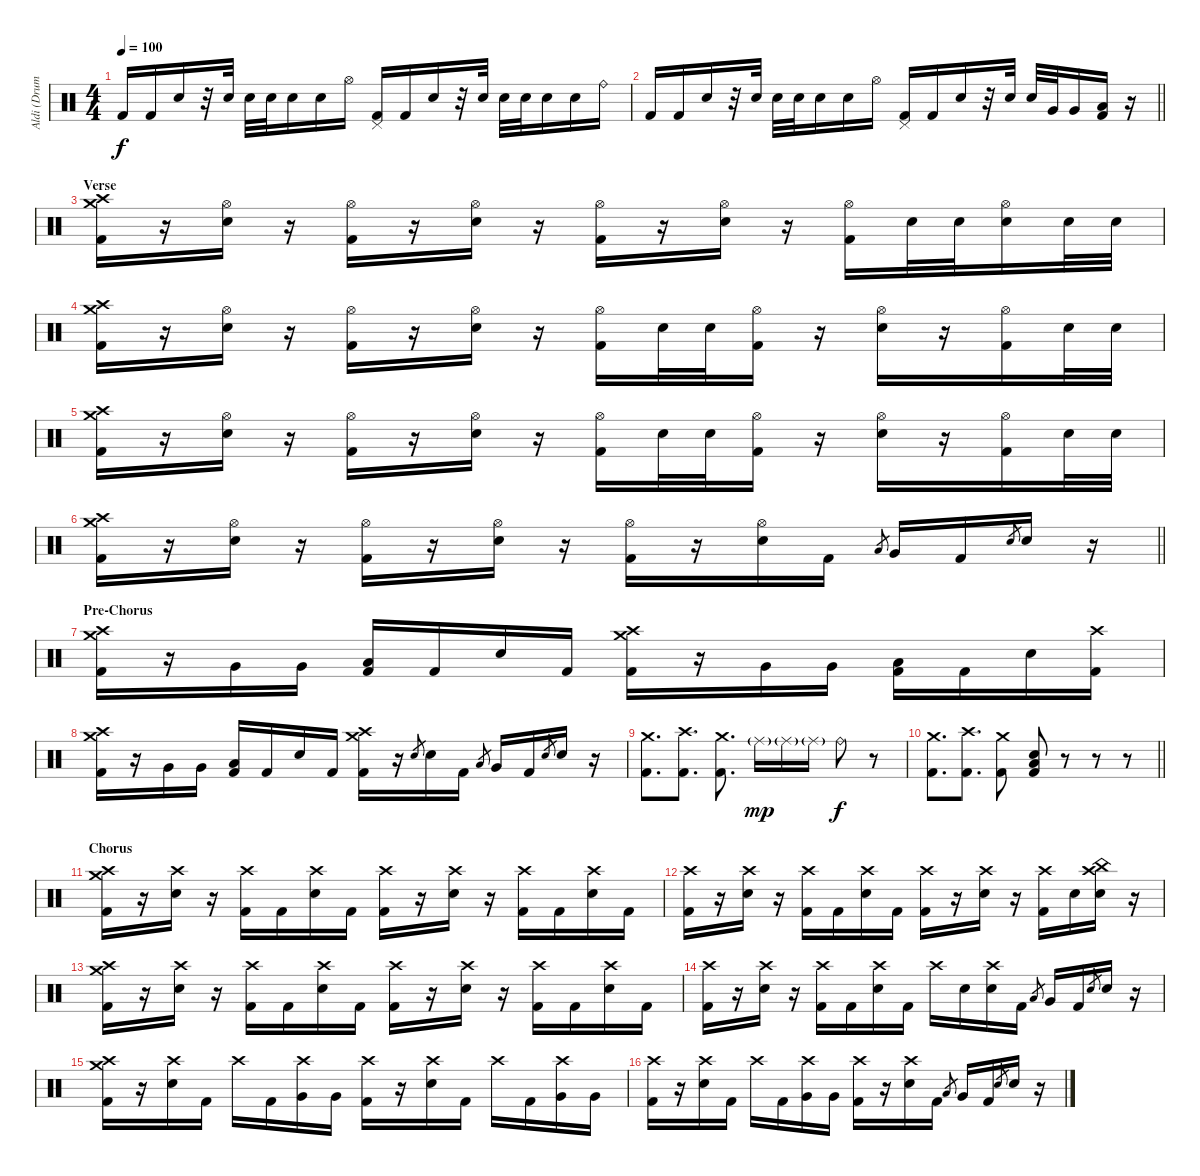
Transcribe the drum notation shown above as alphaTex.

\track ("Aldi (Drum)" "Aldi (Drum") {instrument percussion}
\staff {score}
\articulation defaults
\ts (4 4)
\tempo 100
\clef neutral
\ks c "Kick (hit) 2".16{dy f} "Kick (hit) 2".16 "Electric Snare (hit)".16
r.32 "Electric Snare (hit)".32 "Electric Snare (hit)".32 "Electric Snare (hit)".32 "Electric Snare (hit)".16 "Electric Snare (hit)".16 "Hi-Hat (open)".16 ("Pedal Hi-Hat (hit)" "Kick (hit) 2").16 "Kick (hit) 2".16 "Electric Snare (hit)".16 r.32 "Electric Snare (hit)".32 "Electric Snare (hit)".32 "Electric Snare (hit)".32 "Electric Snare (hit)".16 "Electric Snare (hit)".16 "Ride (bell)".16 |
\barLineRight lightlight "Kick (hit) 2".16 "Kick (hit) 2".16 "Electric Snare (hit)".16
r.32 "Electric Snare (hit)".32 "Electric Snare (hit)".32 "Electric Snare (hit)".32 "Electric Snare (hit)".16 "Electric Snare (hit)".16 "Hi-Hat (open)".16 ("Pedal Hi-Hat (hit)" "Kick (hit) 2").16 "Kick (hit) 2".16 "Electric Snare (hit)".16 r.32 "Electric Snare (hit)".32 "Electric Snare (hit)".32 "Very Low Tom (hit)".32 "Very Low Tom (hit)".16 ("Low Floor Tom (hit)" "Kick (hit) 2").16 r.16 |
\section ("" "Verse")
("Crash medium (hit)" "Crash high (hit)" "Kick (hit) 2").16 r.16 ("Hi-Hat (open)" "Electric Snare (hit)").16 r.16 ("Hi-Hat (open)" "Kick (hit) 2").16 r.16 ("Hi-Hat (open)" "Electric Snare (hit)").16 r.16 ("Hi-Hat (open)" "Kick (hit) 2").16 r.16 ("Hi-Hat (open)" "Electric Snare (hit)").16 r.16 ("Hi-Hat (open)" "Kick (hit) 2").16 "Electric Snare (hit)".32 "Electric Snare (hit)".32 ("Hi-Hat (open)" "Electric Snare (hit)").16 "Electric Snare (hit)".32 "Electric Snare (hit)".32 |
("Crash medium (hit)" "Crash high (hit)" "Kick (hit) 2").16 r.16 ("Hi-Hat (open)" "Electric Snare (hit)").16 r.16 ("Hi-Hat (open)" "Kick (hit) 2").16 r.16 ("Hi-Hat (open)" "Electric Snare (hit)").16 r.16 ("Hi-Hat (open)" "Kick (hit) 2").16 "Electric Snare (hit)".32 "Electric Snare (hit)".32 ("Hi-Hat (open)" "Kick (hit) 2").16 r.16 ("Hi-Hat (open)" "Electric Snare (hit)").16 r.16 ("Hi-Hat (open)" "Kick (hit) 2").16 "Electric Snare (hit)".32 "Electric Snare (hit)".32 |
("Crash medium (hit)" "Crash high (hit)" "Kick (hit) 2").16 r.16 ("Hi-Hat (open)" "Electric Snare (hit)").16 r.16 ("Hi-Hat (open)" "Kick (hit) 2").16 r.16 ("Hi-Hat (open)" "Electric Snare (hit)").16 r.16 ("Hi-Hat (open)" "Kick (hit) 2").16 "Electric Snare (hit)".32 "Electric Snare (hit)".32 ("Hi-Hat (open)" "Kick (hit) 2").16 r.16 ("Hi-Hat (open)" "Electric Snare (hit)").16 r.16 ("Hi-Hat (open)" "Kick (hit) 2").16 "Electric Snare (hit)".32 "Electric Snare (hit)".32 |
\barLineRight lightlight
("Crash medium (hit)" "Crash high (hit)" "Kick (hit) 2").16 r.16 ("Hi-Hat (open)" "Electric Snare (hit)").16 r.16 ("Hi-Hat (open)" "Kick (hit) 2").16 r.16 ("Hi-Hat (open)" "Electric Snare (hit)").16 r.16 ("Hi-Hat (open)" "Kick (hit) 2").16 r.16 ("Hi-Hat (open)" "Electric Snare (hit)").16 "Kick (hit) 2".16 "Low Floor Tom (hit)".8{gr} "Very Low Tom (hit)".16 "Kick (hit) 2".16 "Electric Snare (hit)".8{gr} "Electric Snare (hit)".16 r.16 |
\section ("" "Pre-Chorus")
("Crash high (hit)" "Crash medium (hit)" "Kick (hit) 2").16 r.16 "Very Low Tom (hit)".16 "Very Low Tom (hit)".16 ("Low Floor Tom (hit)" "Kick (hit) 2").16 "Kick (hit) 2".16 "Electric Snare (hit)".16 "Kick (hit) 2".16 ("Crash high (hit)" "Crash medium (hit)" "Kick (hit) 2").16 r.16 "Very Low Tom (hit)".16 "Very Low Tom (hit)".16 ("Low Floor Tom (hit)" "Kick (hit) 2").16 "Kick (hit) 2".16 "Electric Snare (hit)".16 ("Crash high (hit)" "Kick (hit) 2").16 |
("Crash high (hit)" "Crash medium (hit)" "Kick (hit) 2").16 r.16 "Very Low Tom (hit)".16 "Very Low Tom (hit)".16 ("Low Floor Tom (hit)" "Kick (hit) 2").16 "Kick (hit) 2".16 "Electric Snare (hit)".16 "Kick (hit) 2".16 ("Crash high (hit)" "Crash medium (hit)" "Kick (hit) 2").16 r.16 "Electric Snare (hit)".8{gr} "Electric Snare (hit)".16 "Kick (hit) 2".16 "Low Floor Tom (hit)".8{gr} "Very Low Tom (hit)".16 "Kick (hit) 2".16 "Electric Snare (hit)".8{gr} "Electric Snare (hit)".16 r.16 |
("Crash medium (hit)" "Kick (hit) 2").8{d} ("Crash high (hit)" "Kick (hit) 2").8{d} ("Crash medium (hit)" "Kick (hit) 2").8{d} "Ride (middle)"{g}.16{dy mp} "Ride (middle)"{g}.16 "Ride (middle)"{g}.16 "Ride (bell)".8{dy f} r.8 |
\barLineRight lightlight
("Crash medium (hit)" "Kick (hit) 2").8{d} ("Crash high (hit)" "Kick (hit) 2").8{d} ("Crash medium (hit)" "Kick (hit) 2").8 ("Electric Snare (hit)" "Low Floor Tom (hit)" "Kick (hit) 2").8 r.8 r.8 r.8 |
\section ("" "Chorus")
("Crash medium (hit)" "Crash high (hit)" "Kick (hit) 2").16 r.16 ("Crash high (hit)" "Electric Snare (hit)").16 r.16 ("Crash high (hit)" "Kick (hit) 2").16 "Kick (hit) 2".16 ("Crash high (hit)" "Electric Snare (hit)").16 "Kick (hit) 2".16 ("Crash high (hit)" "Kick (hit) 2").16 r.16 ("Crash high (hit)" "Electric Snare (hit)").16 r.16 ("Crash high (hit)" "Kick (hit) 2").16 "Kick (hit) 2".16 ("Crash high (hit)" "Electric Snare (hit)").16 "Kick (hit) 2".16 |
("Crash high (hit)" "Kick (hit) 2").16 r.16 ("Crash high (hit)" "Electric Snare (hit)").16 r.16 ("Crash high (hit)" "Kick (hit) 2").16 "Kick (hit) 2".16 ("Crash high (hit)" "Electric Snare (hit)").16 "Kick (hit) 2".16 ("Crash high (hit)" "Kick (hit) 2").16 r.16 ("Crash high (hit)" "Electric Snare (hit)").16 r.16 ("Crash high (hit)" "Kick (hit) 2").16 "Electric Snare (hit)".16 ("China (hit)" "Crash high (hit)" "Electric Snare (hit)").16 r.16 |
("Crash medium (hit)" "Crash high (hit)" "Kick (hit) 2").16 r.16 ("Crash high (hit)" "Electric Snare (hit)").16 r.16 ("Crash high (hit)" "Kick (hit) 2").16 "Kick (hit) 2".16 ("Crash high (hit)" "Electric Snare (hit)").16 "Kick (hit) 2".16 ("Crash high (hit)" "Kick (hit) 2").16 r.16 ("Crash high (hit)" "Electric Snare (hit)").16 r.16 ("Crash high (hit)" "Kick (hit) 2").16 "Kick (hit) 2".16 ("Crash high (hit)" "Electric Snare (hit)").16 "Kick (hit) 2".16 |
("Crash high (hit)" "Kick (hit) 2").16 r.16 ("Crash high (hit)" "Electric Snare (hit)").16 r.16 ("Crash high (hit)" "Kick (hit) 2").16 "Kick (hit) 2".16 ("Crash high (hit)" "Electric Snare (hit)").16 "Kick (hit) 2".16 "Crash high (hit)".16 "Electric Snare (hit)".16 ("Crash high (hit)" "Electric Snare (hit)").16 "Kick (hit) 2".16 "Low Floor Tom (hit)".8{gr} "Very Low Tom (hit)".16 "Kick (hit) 2".16 "Electric Snare (hit)".8{gr} "Electric Snare (hit)".16 r.16 |
("Crash medium (hit)" "Crash high (hit)" "Kick (hit) 2").16 r.16 ("Crash high (hit)" "Electric Snare (hit)").16 "Kick (hit) 2".16 "Crash high (hit)".16 "Kick (hit) 2".16 ("Crash high (hit)" "Very Low Tom (hit)").16 "Very Low Tom (hit)".16 ("Crash high (hit)" "Kick (hit) 2").16 r.16 ("Crash high (hit)" "Electric Snare (hit)").16 "Kick (hit) 2".16 "Crash high (hit)".16 "Kick (hit) 2".16 ("Crash high (hit)" "Very Low Tom (hit)").16 "Very Low Tom (hit)".16 |
("Crash high (hit)" "Kick (hit) 2").16 r.16 ("Crash high (hit)" "Electric Snare (hit)").16 "Kick (hit) 2".16 "Crash high (hit)".16 "Kick (hit) 2".16 ("Crash high (hit)" "Very Low Tom (hit)").16 "Very Low Tom (hit)".16 ("Crash high (hit)" "Kick (hit) 2").16 r.16 ("Crash high (hit)" "Electric Snare (hit)").16 "Kick (hit) 2".16 "Low Floor Tom (hit)".8{gr} "Very Low Tom (hit)".16 "Kick (hit) 2".16 "Electric Snare (hit)".8{gr} "Electric Snare (hit)".16 r.16
